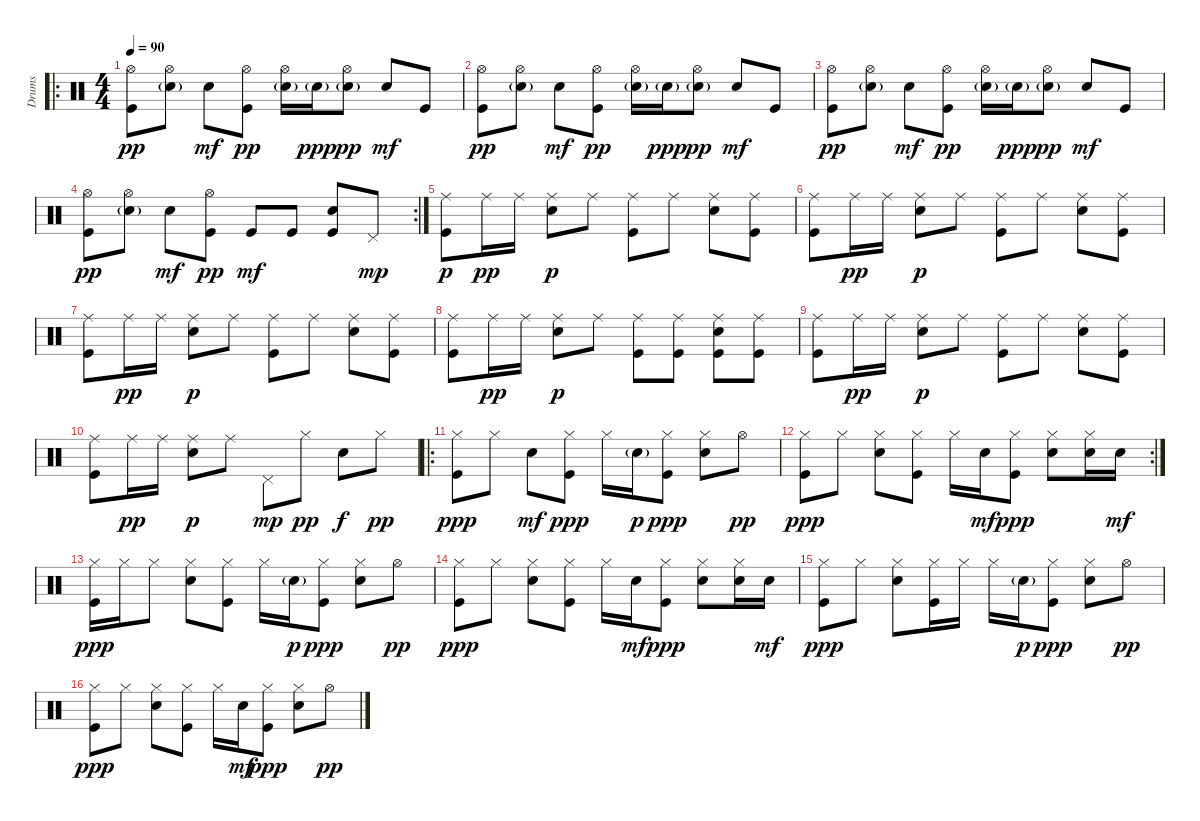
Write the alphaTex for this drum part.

\track ("Drums" "Drums") {instrument percussion}
\staff {score}
\articulation defaults
\ro
\ts (4 4)
\tempo 90
\clef neutral
\ks c
("Kick (hit)" "Hi-Hat (open)").8{dy pp} ("Snare (hit) 2"{g} "Hi-Hat (open)").8 "Snare (hit) 2".8{dy mf} ("Kick (hit)" "Hi-Hat (open)").8{dy pp} ("Snare (hit) 2"{g} "Hi-Hat (open)").16 "Snare (hit) 2"{g}.16{dy ppp} ("Snare (hit) 2"{g} "Hi-Hat (open)").8{dy pp} "Snare (hit) 2".8{dy mf} "Kick (hit)".8 |
("Kick (hit)" "Hi-Hat (open)").8{dy pp} ("Snare (hit) 2"{g} "Hi-Hat (open)").8 "Snare (hit) 2".8{dy mf} ("Kick (hit)" "Hi-Hat (open)").8{dy pp} ("Snare (hit) 2"{g} "Hi-Hat (open)").16 "Snare (hit) 2"{g}.16{dy ppp} ("Snare (hit) 2"{g} "Hi-Hat (open)").8{dy pp} "Snare (hit) 2".8{dy mf} "Kick (hit)".8 |
("Kick (hit)" "Hi-Hat (open)").8{dy pp} ("Snare (hit) 2"{g} "Hi-Hat (open)").8 "Snare (hit) 2".8{dy mf} ("Kick (hit)" "Hi-Hat (open)").8{dy pp} ("Snare (hit) 2"{g} "Hi-Hat (open)").16 "Snare (hit) 2"{g}.16{dy ppp} ("Snare (hit) 2"{g} "Hi-Hat (open)").8{dy pp} "Snare (hit) 2".8{dy mf} "Kick (hit)".8 |
\rc 2
("Kick (hit)" "Hi-Hat (open)").8{dy pp} ("Snare (hit) 2"{g} "Hi-Hat (open)").8 "Snare (hit) 2".8{dy mf} ("Kick (hit)" "Hi-Hat (open)").8{dy pp} "Kick (hit)".8{dy mf} "Kick (hit)".8 ("Kick (hit)" "Snare (hit) 2").8 "Pedal Hi-Hat (hit)".8{dy mp} |
("Kick (hit)" "Ride (middle)").8{dy p} "Ride (middle)".16{dy pp} "Ride (middle)".16 ("Snare (hit) 2" "Ride (middle)").8{dy p} "Ride (middle)".8 ("Kick (hit)" "Ride (middle)").8 "Ride (middle)".8 ("Snare (hit) 2" "Ride (middle)").8 ("Kick (hit)" "Ride (middle)").8 |
("Kick (hit)" "Ride (middle)").8 "Ride (middle)".16{dy pp} "Ride (middle)".16 ("Snare (hit) 2" "Ride (middle)").8{dy p} "Ride (middle)".8 ("Kick (hit)" "Ride (middle)").8 "Ride (middle)".8 ("Snare (hit) 2" "Ride (middle)").8 ("Kick (hit)" "Ride (middle)").8 |
("Kick (hit)" "Ride (middle)").8 "Ride (middle)".16{dy pp} "Ride (middle)".16 ("Snare (hit) 2" "Ride (middle)").8{dy p} "Ride (middle)".8 ("Kick (hit)" "Ride (middle)").8 "Ride (middle)".8 ("Snare (hit) 2" "Ride (middle)").8 ("Kick (hit)" "Ride (middle)").8 |
("Kick (hit)" "Ride (middle)").8 "Ride (middle)".16{dy pp} "Ride (middle)".16 ("Snare (hit) 2" "Ride (middle)").8{dy p} "Ride (middle)".8 ("Kick (hit)" "Ride (middle)").8 ("Kick (hit)" "Ride (middle)").8 ("Kick (hit)" "Snare (hit) 2" "Ride (middle)").8 ("Kick (hit)" "Ride (middle)").8 |
("Kick (hit)" "Ride (middle)").8 "Ride (middle)".16{dy pp} "Ride (middle)".16 ("Snare (hit) 2" "Ride (middle)").8{dy p} "Ride (middle)".8 ("Kick (hit)" "Ride (middle)").8 "Ride (middle)".8 ("Snare (hit) 2" "Ride (middle)").8 ("Kick (hit)" "Ride (middle)").8 |
("Kick (hit)" "Ride (middle)").8 "Ride (middle)".16{dy pp} "Ride (middle)".16 ("Snare (hit) 2" "Ride (middle)").8{dy p} "Ride (middle)".8 "Pedal Hi-Hat (hit)".8{dy mp} "Hi-Hat (closed)".8{dy pp} "Snare (hit) 2".8{dy f} "Hi-Hat (closed)".8{dy pp} |
\ro
("Kick (hit)" "Hi-Hat (closed)").8{dy ppp} "Hi-Hat (closed)".8 "Snare (hit) 2".8{dy mf} ("Kick (hit)" "Hi-Hat (closed)").8{dy ppp} "Hi-Hat (closed)".16 "Snare (hit) 2"{g}.16{dy p} ("Kick (hit)" "Hi-Hat (closed)").8{dy ppp} ("Snare (hit) 2" "Hi-Hat (closed)").8 "Hi-Hat (open)".8{dy pp} |
\rc 2
("Kick (hit)" "Hi-Hat (closed)").8{dy ppp} "Hi-Hat (closed)".8 ("Snare (hit) 2" "Hi-Hat (closed)").8 ("Kick (hit)" "Hi-Hat (closed)").8 "Hi-Hat (closed)".16 "Snare (hit) 2".16{dy mf} ("Kick (hit)" "Hi-Hat (closed)").8{dy ppp} ("Snare (hit) 2" "Hi-Hat (closed)").8 ("Snare (hit) 2" "Hi-Hat (closed)").16 "Snare (hit) 2".16{dy mf} |
("Kick (hit)" "Hi-Hat (closed)").16{dy ppp} "Hi-Hat (closed)".16 "Hi-Hat (closed)".8 ("Snare (hit) 2" "Hi-Hat (closed)").8 ("Kick (hit)" "Hi-Hat (closed)").8 "Hi-Hat (closed)".16 "Snare (hit) 2"{g}.16{dy p} ("Kick (hit)" "Hi-Hat (closed)").8{dy ppp} ("Snare (hit) 2" "Hi-Hat (closed)").8 "Hi-Hat (open)".8{dy pp} |
("Kick (hit)" "Hi-Hat (closed)").8{dy ppp} "Hi-Hat (closed)".8 ("Snare (hit) 2" "Hi-Hat (closed)").8 ("Kick (hit)" "Hi-Hat (closed)").8 "Hi-Hat (closed)".16 "Snare (hit) 2".16{dy mf} ("Kick (hit)" "Hi-Hat (closed)").8{dy ppp} ("Snare (hit) 2" "Hi-Hat (closed)").8 ("Snare (hit) 2" "Hi-Hat (closed)").16 "Snare (hit) 2".16{dy mf} |
("Kick (hit)" "Hi-Hat (closed)").8{dy ppp} "Hi-Hat (closed)".8 ("Snare (hit) 2" "Hi-Hat (closed)").8 ("Kick (hit)" "Hi-Hat (closed)").16 "Hi-Hat (closed)".16 "Hi-Hat (closed)".16 "Snare (hit) 2"{g}.16{dy p} ("Kick (hit)" "Hi-Hat (closed)").8{dy ppp} ("Snare (hit) 2" "Hi-Hat (closed)").8 "Hi-Hat (open)".8{dy pp} |
("Kick (hit)" "Hi-Hat (closed)").8{dy ppp} "Hi-Hat (closed)".8 ("Snare (hit) 2" "Hi-Hat (closed)").8 ("Kick (hit)" "Hi-Hat (closed)").8 "Hi-Hat (closed)".16 "Snare (hit) 2".16{dy mf} ("Kick (hit)" "Hi-Hat (closed)").8{dy ppp} ("Snare (hit) 2" "Hi-Hat (closed)").8 "Hi-Hat (open)".8{dy pp}
